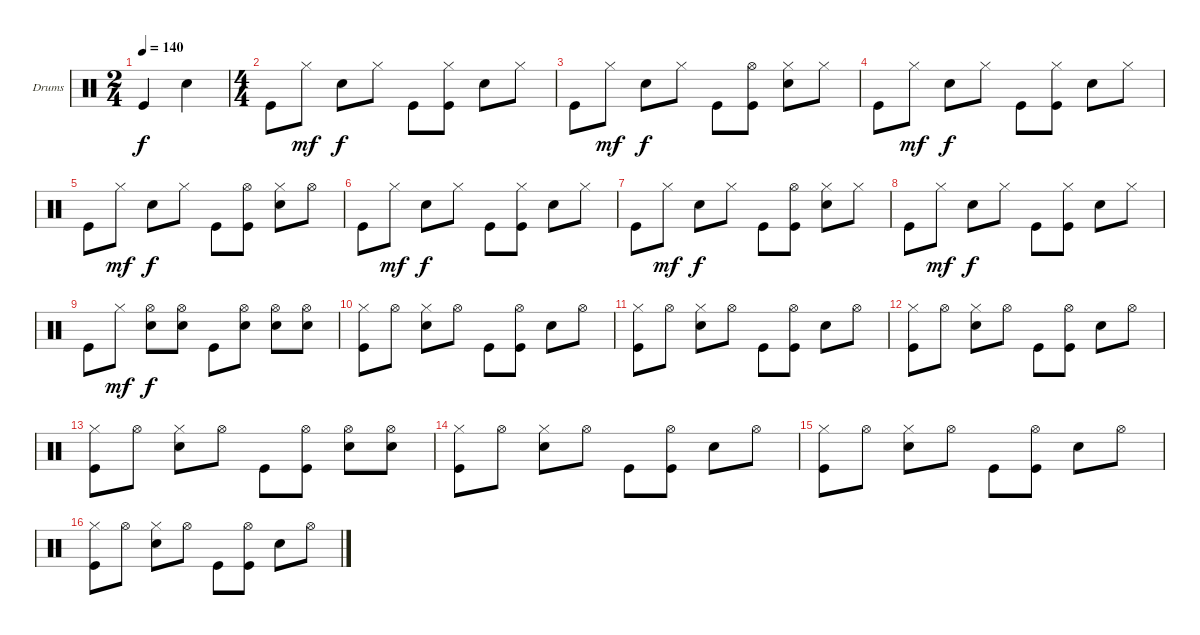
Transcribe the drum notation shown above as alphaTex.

\defaultSystemsLayout 4
\bracketExtendMode groupsimilarinstruments
\firstSystemTrackNameOrientation horizontal
\otherSystemsTrackNameOrientation horizontal
\track ("Drumkit" "Drums") {instrument percussion}
\staff {score}
\articulation defaults
\ts (2 4)
\tempo 140
\clef neutral
\ks c "Kick (hit)".4{dy f} "Snare (hit) 2".4
|
\ts (4 4)
"Kick (hit)".8 "Hi-Hat (closed)".8{dy mf} "Snare (hit) 2".8{dy f} "Hi-Hat (closed)".8 "Kick (hit)".8 ("Kick (hit)" "Hi-Hat (closed)").8 "Snare (hit) 2".8 "Hi-Hat (closed)".8 |
"Kick (hit)".8 "Hi-Hat (closed)".8{dy mf} "Snare (hit) 2".8{dy f} "Hi-Hat (closed)".8 "Kick (hit)".8 ("Kick (hit)" "Hi-Hat (open)").8 ("Snare (hit) 2" "Hi-Hat (closed)").8 "Hi-Hat (closed)".8 |
"Kick (hit)".8 "Hi-Hat (closed)".8{dy mf} "Snare (hit) 2".8{dy f} "Hi-Hat (closed)".8 "Kick (hit)".8 ("Kick (hit)" "Hi-Hat (closed)").8 "Snare (hit) 2".8 "Hi-Hat (closed)".8 |
"Kick (hit)".8 "Hi-Hat (closed)".8{dy mf} "Snare (hit) 2".8{dy f} "Hi-Hat (closed)".8 "Kick (hit)".8 ("Kick (hit)" "Hi-Hat (open)").8 ("Snare (hit) 2" "Hi-Hat (closed)").8 "Hi-Hat (open)".8 |
"Kick (hit)".8 "Hi-Hat (closed)".8{dy mf} "Snare (hit) 2".8{dy f} "Hi-Hat (closed)".8 "Kick (hit)".8 ("Kick (hit)" "Hi-Hat (closed)").8 "Snare (hit) 2".8 "Hi-Hat (closed)".8 |
"Kick (hit)".8 "Hi-Hat (closed)".8{dy mf} "Snare (hit) 2".8{dy f} "Hi-Hat (closed)".8 "Kick (hit)".8 ("Kick (hit)" "Hi-Hat (open)").8 ("Snare (hit) 2" "Hi-Hat (closed)").8 "Hi-Hat (closed)".8 |
"Kick (hit)".8 "Hi-Hat (closed)".8{dy mf} "Snare (hit) 2".8{dy f} "Hi-Hat (closed)".8 "Kick (hit)".8 ("Kick (hit)" "Hi-Hat (closed)").8 "Snare (hit) 2".8 "Hi-Hat (closed)".8 |
"Kick (hit)".8 "Hi-Hat (closed)".8{dy mf} ("Snare (hit) 2" "Hi-Hat (open)").8{dy f} ("Hi-Hat (open)" "Snare (hit) 2").8 "Kick (hit)".8 ("Snare (hit) 2" "Hi-Hat (open)").8 ("Snare (hit) 2" "Hi-Hat (open)").8 ("Hi-Hat (open)" "Snare (hit) 2").8 |
("Hi-Hat (closed)" "Kick (hit)").8 "Hi-Hat (open)".8 ("Hi-Hat (closed)" "Snare (hit) 2").8 "Hi-Hat (open)".8 "Kick (hit)".8 ("Kick (hit)" "Hi-Hat (open)").8 "Snare (hit) 2".8 "Hi-Hat (open)".8 |
("Hi-Hat (closed)" "Kick (hit)").8 "Hi-Hat (open)".8 ("Hi-Hat (closed)" "Snare (hit) 2").8 "Hi-Hat (open)".8 "Kick (hit)".8 ("Kick (hit)" "Hi-Hat (open)").8 "Snare (hit) 2".8 "Hi-Hat (open)".8 |
("Hi-Hat (closed)" "Kick (hit)").8 "Hi-Hat (open)".8 ("Hi-Hat (closed)" "Snare (hit) 2").8 "Hi-Hat (open)".8 "Kick (hit)".8 ("Kick (hit)" "Hi-Hat (open)").8 "Snare (hit) 2".8 "Hi-Hat (open)".8 |
("Hi-Hat (closed)" "Kick (hit)").8 "Hi-Hat (open)".8 ("Hi-Hat (closed)" "Snare (hit) 2").8 "Hi-Hat (open)".8 "Kick (hit)".8 ("Kick (hit)" "Hi-Hat (open)").8 ("Snare (hit) 2" "Hi-Hat (open)").8 ("Snare (hit) 2" "Hi-Hat (open)").8 |
("Hi-Hat (closed)" "Kick (hit)").8 "Hi-Hat (open)".8 ("Hi-Hat (closed)" "Snare (hit) 2").8 "Hi-Hat (open)".8 "Kick (hit)".8 ("Kick (hit)" "Hi-Hat (open)").8 "Snare (hit) 2".8 "Hi-Hat (open)".8 |
("Hi-Hat (closed)" "Kick (hit)").8 "Hi-Hat (open)".8 ("Hi-Hat (closed)" "Snare (hit) 2").8 "Hi-Hat (open)".8 "Kick (hit)".8 ("Kick (hit)" "Hi-Hat (open)").8 "Snare (hit) 2".8 "Hi-Hat (open)".8 |
("Hi-Hat (closed)" "Kick (hit)").8 "Hi-Hat (open)".8 ("Hi-Hat (closed)" "Snare (hit) 2").8 "Hi-Hat (open)".8 "Kick (hit)".8 ("Kick (hit)" "Hi-Hat (open)").8 "Snare (hit) 2".8 "Hi-Hat (open)".8
